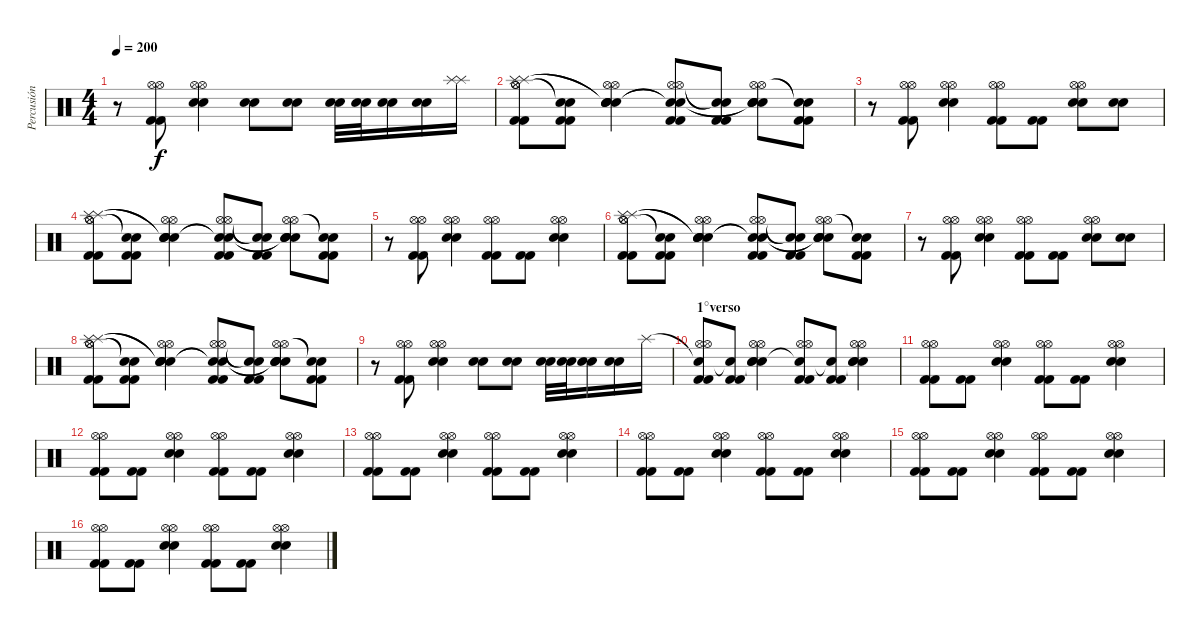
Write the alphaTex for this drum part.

\track ("Percusión" "Percusión") {instrument percussion}
\staff {score}
\articulation defaults
\ts (4 4)
\tempo 200
\clef neutral
\ks c
r.8{dy f} ("Kick (hit) 2" "Kick (hit) 2" "Hi-Hat (open)" "Hi-Hat (open)").8 ("Snare (hit) 2" "Snare (hit) 2" "Hi-Hat (open)" "Hi-Hat (open)").4 ("Snare (hit) 2" "Snare (hit) 2").8 ("Snare (hit) 2" "Snare (hit) 2").8 ("Snare (hit) 2" "Snare (hit) 2").32 ("Snare (hit) 2" "Snare (hit) 2").32 ("Snare (hit) 2" "Snare (hit) 2").16 ("Snare (hit) 2" "Snare (hit) 2").16 ("Splash (hit)" "Splash (hit)").16 |
("Kick (hit) 2" "Kick (hit) 2" "Hi-Hat (open)" "Hi-Hat (open)" "Splash (hit)" "Splash (hit)").8 ("Kick (hit) 2" "Kick (hit) 2" "Snare (hit)"{t} "Snare (hit)"{t}).8 ("Snare (hit) 2" "Snare (hit) 2" "Hi-Hat (open)" "Hi-Hat (open)" "Snare (hit)"{t} "Snare (hit)"{t}).4 ("Kick (hit) 2" "Kick (hit) 2" "Hi-Hat (open)" "Hi-Hat (open)" "Snare (hit)"{t} "Snare (hit)"{t}).8 ("Kick (hit) 2" "Kick (hit) 2" "Snare (hit)"{t} "Snare (hit)"{t}).8 ("Snare (hit) 2" "Snare (hit) 2" "Hi-Hat (open)" "Hi-Hat (open)" "Snare (hit)"{t} "Snare (hit)"{t}).8 ("Kick (hit) 2" "Kick (hit) 2" "Snare (hit)"{t} "Snare (hit)"{t}).8 |
r.8 ("Kick (hit) 2" "Kick (hit) 2" "Hi-Hat (open)" "Hi-Hat (open)").8 ("Snare (hit) 2" "Snare (hit) 2" "Hi-Hat (open)" "Hi-Hat (open)").4 ("Kick (hit) 2" "Kick (hit) 2" "Hi-Hat (open)" "Hi-Hat (open)").8 ("Kick (hit) 2" "Kick (hit) 2").8 ("Snare (hit) 2" "Snare (hit) 2" "Hi-Hat (open)" "Hi-Hat (open)").8 ("Snare (hit) 2" "Snare (hit) 2").8 |
("Kick (hit) 2" "Kick (hit) 2" "Hi-Hat (open)" "Hi-Hat (open)" "Splash (hit)" "Splash (hit)").8 ("Kick (hit) 2" "Kick (hit) 2" "Snare (hit)"{t} "Snare (hit)"{t}).8 ("Snare (hit) 2" "Snare (hit) 2" "Hi-Hat (open)" "Hi-Hat (open)" "Snare (hit)"{t} "Snare (hit)"{t}).4 ("Kick (hit) 2" "Kick (hit) 2" "Hi-Hat (open)" "Hi-Hat (open)" "Snare (hit)"{t} "Snare (hit)"{t}).8 ("Kick (hit) 2" "Kick (hit) 2" "Snare (hit)"{t} "Snare (hit)"{t}).8 ("Snare (hit) 2" "Snare (hit) 2" "Hi-Hat (open)" "Hi-Hat (open)" "Snare (hit)"{t} "Snare (hit)"{t}).8 ("Kick (hit) 2" "Kick (hit) 2" "Snare (hit)"{t} "Snare (hit)"{t}).8 |
r.8 ("Kick (hit) 2" "Kick (hit) 2" "Hi-Hat (open)" "Hi-Hat (open)").8 ("Snare (hit) 2" "Snare (hit) 2" "Hi-Hat (open)" "Hi-Hat (open)").4 ("Kick (hit) 2" "Kick (hit) 2" "Hi-Hat (open)" "Hi-Hat (open)").8 ("Kick (hit) 2" "Kick (hit) 2").8 ("Snare (hit) 2" "Snare (hit) 2" "Hi-Hat (open)" "Hi-Hat (open)").4 |
("Kick (hit) 2" "Kick (hit) 2" "Hi-Hat (open)" "Hi-Hat (open)" "Splash (hit)" "Splash (hit)").8 ("Kick (hit) 2" "Kick (hit) 2" "Snare (hit)"{t} "Snare (hit)"{t}).8 ("Snare (hit) 2" "Snare (hit) 2" "Hi-Hat (open)" "Hi-Hat (open)" "Snare (hit)"{t} "Snare (hit)"{t}).4 ("Kick (hit) 2" "Kick (hit) 2" "Hi-Hat (open)" "Hi-Hat (open)" "Snare (hit)"{t} "Snare (hit)"{t}).8 ("Kick (hit) 2" "Kick (hit) 2" "Snare (hit)"{t} "Snare (hit)"{t}).8 ("Snare (hit) 2" "Snare (hit) 2" "Hi-Hat (open)" "Hi-Hat (open)" "Snare (hit)"{t} "Snare (hit)"{t}).8 ("Kick (hit) 2" "Kick (hit) 2" "Snare (hit)"{t} "Snare (hit)"{t}).8 |
r.8 ("Kick (hit) 2" "Kick (hit) 2" "Hi-Hat (open)" "Hi-Hat (open)").8 ("Snare (hit) 2" "Snare (hit) 2" "Hi-Hat (open)" "Hi-Hat (open)").4 ("Kick (hit) 2" "Kick (hit) 2" "Hi-Hat (open)" "Hi-Hat (open)").8 ("Kick (hit) 2" "Kick (hit) 2").8 ("Snare (hit) 2" "Snare (hit) 2" "Hi-Hat (open)" "Hi-Hat (open)").8 ("Snare (hit) 2" "Snare (hit) 2").8 |
("Kick (hit) 2" "Kick (hit) 2" "Hi-Hat (open)" "Hi-Hat (open)" "Splash (hit)" "Splash (hit)").8 ("Kick (hit) 2" "Kick (hit) 2" "Snare (hit)"{t} "Snare (hit)"{t}).8 ("Snare (hit) 2" "Snare (hit) 2" "Hi-Hat (open)" "Hi-Hat (open)" "Snare (hit)"{t} "Snare (hit)"{t}).4 ("Kick (hit) 2" "Kick (hit) 2" "Hi-Hat (open)" "Hi-Hat (open)" "Snare (hit)"{t} "Snare (hit)"{t}).8 ("Kick (hit) 2" "Kick (hit) 2" "Snare (hit)"{t} "Snare (hit)"{t}).8 ("Snare (hit) 2" "Snare (hit) 2" "Hi-Hat (open)" "Hi-Hat (open)" "Snare (hit)"{t} "Snare (hit)"{t}).8 ("Kick (hit) 2" "Kick (hit) 2" "Snare (hit)"{t} "Snare (hit)"{t}).8 |
r.8 ("Kick (hit) 2" "Kick (hit) 2" "Hi-Hat (open)" "Hi-Hat (open)").8 ("Snare (hit) 2" "Snare (hit) 2" "Hi-Hat (open)" "Hi-Hat (open)").4 ("Snare (hit) 2" "Snare (hit) 2").8 ("Snare (hit) 2" "Snare (hit) 2").8 ("Snare (hit) 2" "Snare (hit) 2").32 ("Snare (hit) 2" "Snare (hit) 2").32 ("Snare (hit) 2" "Snare (hit) 2").16 ("Snare (hit) 2" "Snare (hit) 2").16 "Splash (hit)".16 |
\section ("" " 1°verso")
("Snare (hit)"{t} "Kick (hit) 2" "Kick (hit) 2" "Hi-Hat (open)" "Hi-Hat (open)").8 ("Snare (hit)"{t} "Kick (hit) 2" "Kick (hit) 2").8 ("Snare (hit)"{t} "Snare (hit) 2" "Snare (hit) 2" "Hi-Hat (open)" "Hi-Hat (open)").4 ("Snare (hit)"{t} "Kick (hit) 2" "Kick (hit) 2" "Hi-Hat (open)" "Hi-Hat (open)").8 ("Snare (hit)"{t} "Kick (hit) 2" "Kick (hit) 2").8 ("Snare (hit)"{t} "Snare (hit) 2" "Snare (hit) 2" "Hi-Hat (open)" "Hi-Hat (open)").4 |
("Kick (hit) 2" "Kick (hit) 2" "Hi-Hat (open)" "Hi-Hat (open)").8 ("Kick (hit) 2" "Kick (hit) 2").8 ("Snare (hit) 2" "Snare (hit) 2" "Hi-Hat (open)" "Hi-Hat (open)").4 ("Kick (hit) 2" "Kick (hit) 2" "Hi-Hat (open)" "Hi-Hat (open)").8 ("Kick (hit) 2" "Kick (hit) 2").8 ("Snare (hit) 2" "Snare (hit) 2" "Hi-Hat (open)" "Hi-Hat (open)").4 |
("Kick (hit) 2" "Kick (hit) 2" "Hi-Hat (open)" "Hi-Hat (open)").8 ("Kick (hit) 2" "Kick (hit) 2").8 ("Snare (hit) 2" "Snare (hit) 2" "Hi-Hat (open)" "Hi-Hat (open)").4 ("Kick (hit) 2" "Kick (hit) 2" "Hi-Hat (open)" "Hi-Hat (open)").8 ("Kick (hit) 2" "Kick (hit) 2").8 ("Snare (hit) 2" "Snare (hit) 2" "Hi-Hat (open)" "Hi-Hat (open)").4 |
("Kick (hit) 2" "Kick (hit) 2" "Hi-Hat (open)" "Hi-Hat (open)").8 ("Kick (hit) 2" "Kick (hit) 2").8 ("Snare (hit) 2" "Snare (hit) 2" "Hi-Hat (open)" "Hi-Hat (open)").4 ("Kick (hit) 2" "Kick (hit) 2" "Hi-Hat (open)" "Hi-Hat (open)").8 ("Kick (hit) 2" "Kick (hit) 2").8 ("Snare (hit) 2" "Snare (hit) 2" "Hi-Hat (open)" "Hi-Hat (open)").4 |
("Kick (hit) 2" "Kick (hit) 2" "Hi-Hat (open)" "Hi-Hat (open)").8 ("Kick (hit) 2" "Kick (hit) 2").8 ("Snare (hit) 2" "Snare (hit) 2" "Hi-Hat (open)" "Hi-Hat (open)").4 ("Kick (hit) 2" "Kick (hit) 2" "Hi-Hat (open)" "Hi-Hat (open)").8 ("Kick (hit) 2" "Kick (hit) 2").8 ("Snare (hit) 2" "Snare (hit) 2" "Hi-Hat (open)" "Hi-Hat (open)").4 |
("Kick (hit) 2" "Kick (hit) 2" "Hi-Hat (open)" "Hi-Hat (open)").8 ("Kick (hit) 2" "Kick (hit) 2").8 ("Snare (hit) 2" "Snare (hit) 2" "Hi-Hat (open)" "Hi-Hat (open)").4 ("Kick (hit) 2" "Kick (hit) 2" "Hi-Hat (open)" "Hi-Hat (open)").8 ("Kick (hit) 2" "Kick (hit) 2").8 ("Snare (hit) 2" "Snare (hit) 2" "Hi-Hat (open)" "Hi-Hat (open)").4 |
("Kick (hit) 2" "Kick (hit) 2" "Hi-Hat (open)" "Hi-Hat (open)").8 ("Kick (hit) 2" "Kick (hit) 2").8 ("Snare (hit) 2" "Snare (hit) 2" "Hi-Hat (open)" "Hi-Hat (open)").4 ("Kick (hit) 2" "Kick (hit) 2" "Hi-Hat (open)" "Hi-Hat (open)").8 ("Kick (hit) 2" "Kick (hit) 2").8 ("Snare (hit) 2" "Snare (hit) 2" "Hi-Hat (open)" "Hi-Hat (open)").4
